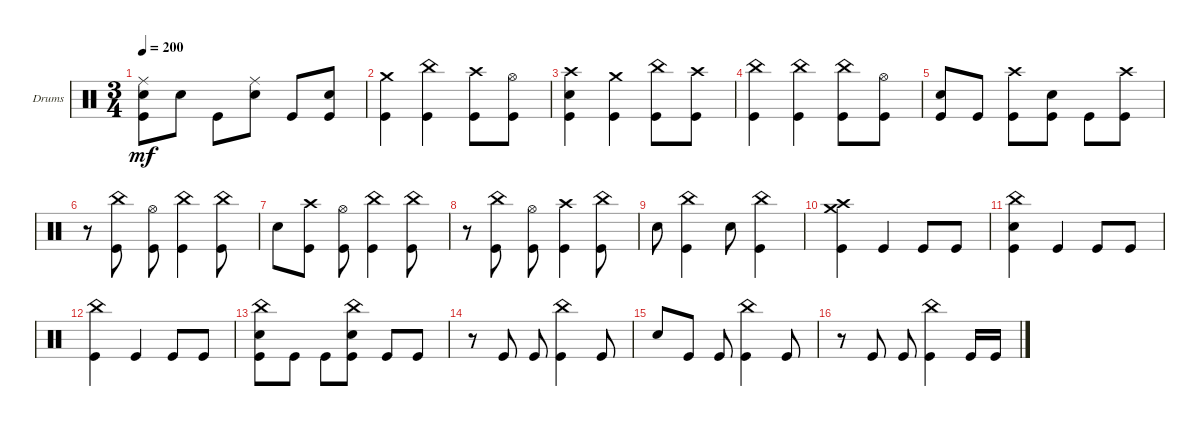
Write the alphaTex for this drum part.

\bracketExtendMode groupsimilarinstruments
\firstSystemTrackNameOrientation horizontal
\otherSystemsTrackNameOrientation horizontal
\track ("Drumkit" "Drums") {instrument percussion}
\staff {score}
\articulation defaults
\ts (3 4)
\tempo 200
\clef neutral
\ks c
("Kick (hit)" "Snare (hit) 2" "Ride (middle)").8{dy mf} "Snare (hit) 2".8 "Kick (hit)".8 ("Snare (hit) 2" "Ride (middle)").8 "Kick (hit)".8 ("Kick (hit)" "Snare (hit) 2").8 |
("Kick (hit)" "Crash medium (hit)").4 ("Kick (hit)" "China (hit)").4 ("Kick (hit)" "Crash high (hit)").8 ("Kick (hit)" "Hi-Hat (open)").8 |
("Kick (hit)" "Snare (hit) 2" "Crash high (hit)").4 ("Kick (hit)" "Crash medium (hit)").4 ("Kick (hit)" "China (hit)").8 ("Kick (hit)" "Crash high (hit)").8 |
("Kick (hit)" "China (hit)").4 ("Kick (hit)" "China (hit)").4 ("Kick (hit)" "China (hit)").8 ("Kick (hit)" "Hi-Hat (open)").8 |
("Kick (hit)" "Snare (hit) 2").8 "Kick (hit)".8 ("Kick (hit)" "Crash high (hit)").8 ("Kick (hit)" "Snare (hit) 2").8 "Kick (hit)".8 ("Kick (hit)" "Crash high (hit)").8 |
r.8 ("Kick (hit)" "China (hit)").8 ("Kick (hit)" "Hi-Hat (open)").8 ("Kick (hit)" "China (hit)").4 ("Kick (hit)" "China (hit)").8 |
"Snare (hit) 2".8 ("Kick (hit)" "Crash high (hit)").8 ("Kick (hit)" "Hi-Hat (open)").8 ("Kick (hit)" "China (hit)").4 ("Kick (hit)" "China (hit)").8 |
r.8 ("Kick (hit)" "China (hit)").8 ("Kick (hit)" "Hi-Hat (open)").8 ("Kick (hit)" "Crash high (hit)").4 ("Kick (hit)" "China (hit)").8 |
"Snare (hit) 2".8 ("Kick (hit)" "China (hit)").4 "Snare (hit) 2".8 ("Kick (hit)" "China (hit)").4 |
("Kick (hit)" "Crash high (hit)" "Crash medium (hit)").4 "Kick (hit)".4 "Kick (hit)".8 "Kick (hit)".8 |
("Kick (hit)" "Snare (hit) 2" "China (hit)").4 "Kick (hit)".4 "Kick (hit)".8 "Kick (hit)".8 |
("Kick (hit)" "China (hit)").4 "Kick (hit)".4 "Kick (hit)".8 "Kick (hit)".8 |
("Kick (hit)" "Snare (hit) 2" "China (hit)").8 "Kick (hit)".8 "Kick (hit)".8 ("Kick (hit)" "Snare (hit) 2" "China (hit)").8 "Kick (hit)".8 "Kick (hit)".8 |
r.8 "Kick (hit)".8 "Kick (hit)".8 ("Kick (hit)" "China (hit)").4 "Kick (hit)".8 |
"Snare (hit) 2".8 "Kick (hit)".8 "Kick (hit)".8 ("Kick (hit)" "China (hit)").4 "Kick (hit)".8 |
r.8 "Kick (hit)".8 "Kick (hit)".8 ("China (hit)" "Kick (hit)").4 "Kick (hit)".16 "Kick (hit)".16
